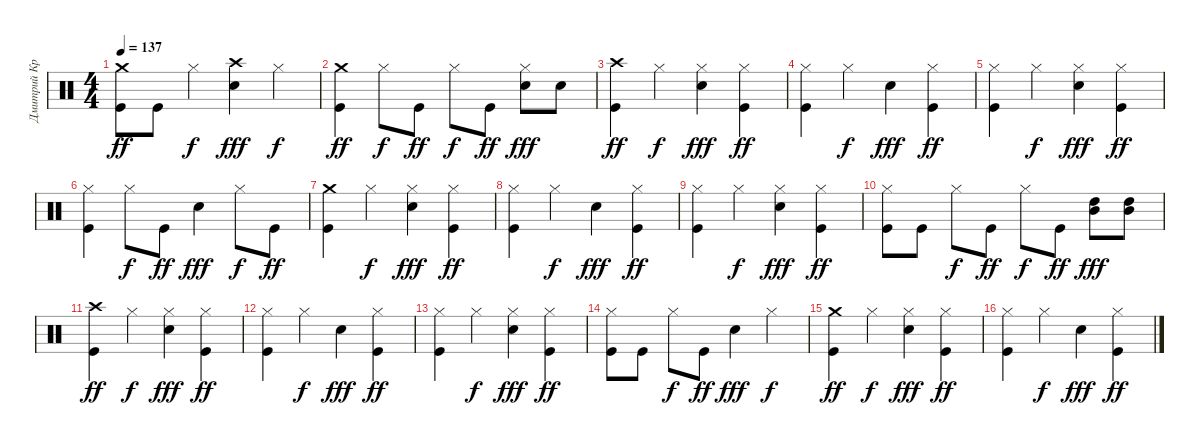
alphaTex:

\track ("Дмитрий Кревенков" "Дмитрий Кр") {instrument percussion}
\staff {score}
\articulation defaults
\ts (4 4)
\tempo 137
\clef neutral
\ks c
("Kick (hit)" "Crash medium (hit)").8{dy ff} "Kick (hit)".8 "Hi-Hat (closed)".4{dy f} ("Crash high (hit)" "Snare (hit) 2").4{dy fff} "Hi-Hat (closed)".4{dy f} |
("Kick (hit)" "Crash medium (hit)").4{dy ff} "Hi-Hat (closed)".8{dy f} "Kick (hit)".8{dy ff} "Hi-Hat (closed)".8{dy f} "Kick (hit)".8{dy ff} ("Snare (hit) 2" "Hi-Hat (closed)").8{dy fff} "Snare (hit) 2".8 |
("Crash high (hit)" "Kick (hit)").4{dy ff} "Hi-Hat (closed)".4{dy f} ("Snare (hit) 2" "Hi-Hat (closed)").4{dy fff} ("Kick (hit)" "Hi-Hat (closed)").4{dy ff} |
("Kick (hit)" "Hi-Hat (closed)").4 "Hi-Hat (closed)".4{dy f} "Snare (hit) 2".4{dy fff} ("Kick (hit)" "Hi-Hat (closed)").4{dy ff} |
("Hi-Hat (closed)" "Kick (hit)").4 "Hi-Hat (closed)".4{dy f} ("Snare (hit) 2" "Hi-Hat (closed)").4{dy fff} ("Kick (hit)" "Hi-Hat (closed)").4{dy ff} |
("Kick (hit)" "Hi-Hat (closed)").4 "Hi-Hat (closed)".8{dy f} "Kick (hit)".8{dy ff} "Snare (hit) 2".4{dy fff} "Hi-Hat (closed)".8{dy f} "Kick (hit)".8{dy ff} |
("Crash medium (hit)" "Kick (hit)").4 "Hi-Hat (closed)".4{dy f} ("Snare (hit) 2" "Hi-Hat (closed)").4{dy fff} ("Kick (hit)" "Hi-Hat (closed)").4{dy ff} |
("Kick (hit)" "Hi-Hat (closed)").4 "Hi-Hat (closed)".4{dy f} "Snare (hit) 2".4{dy fff} ("Kick (hit)" "Hi-Hat (closed)").4{dy ff} |
("Hi-Hat (closed)" "Kick (hit)").4 "Hi-Hat (closed)".4{dy f} ("Snare (hit) 2" "Hi-Hat (closed)").4{dy fff} ("Kick (hit)" "Hi-Hat (closed)").4{dy ff} |
("Kick (hit)" "Hi-Hat (closed)").8 "Kick (hit)".8 "Hi-Hat (closed)".8{dy f} "Kick (hit)".8{dy ff} "Hi-Hat (closed)".8{dy f} "Kick (hit)".8{dy ff} ("High Tom (hit)" "Mid Tom (hit)").8{dy fff} ("Mid Tom (hit)" "High Tom (hit)").8 |
("Crash high (hit)" "Kick (hit)").4{dy ff} "Hi-Hat (closed)".4{dy f} ("Snare (hit) 2" "Hi-Hat (closed)").4{dy fff} ("Kick (hit)" "Hi-Hat (closed)").4{dy ff} |
("Kick (hit)" "Hi-Hat (closed)").4 "Hi-Hat (closed)".4{dy f} "Snare (hit) 2".4{dy fff} ("Kick (hit)" "Hi-Hat (closed)").4{dy ff} |
("Kick (hit)" "Hi-Hat (closed)").4 "Hi-Hat (closed)".4{dy f} ("Snare (hit) 2" "Hi-Hat (closed)").4{dy fff} ("Kick (hit)" "Hi-Hat (closed)").4{dy ff} |
("Kick (hit)" "Hi-Hat (closed)").8 "Kick (hit)".8 "Hi-Hat (closed)".8{dy f} "Kick (hit)".8{dy ff} "Snare (hit) 2".4{dy fff} "Hi-Hat (closed)".4{dy f} |
("Crash medium (hit)" "Kick (hit)").4{dy ff} "Hi-Hat (closed)".4{dy f} ("Snare (hit) 2" "Hi-Hat (closed)").4{dy fff} ("Kick (hit)" "Hi-Hat (closed)").4{dy ff} |
("Kick (hit)" "Hi-Hat (closed)").4 "Hi-Hat (closed)".4{dy f} "Snare (hit) 2".4{dy fff} ("Kick (hit)" "Hi-Hat (closed)").4{dy ff}
